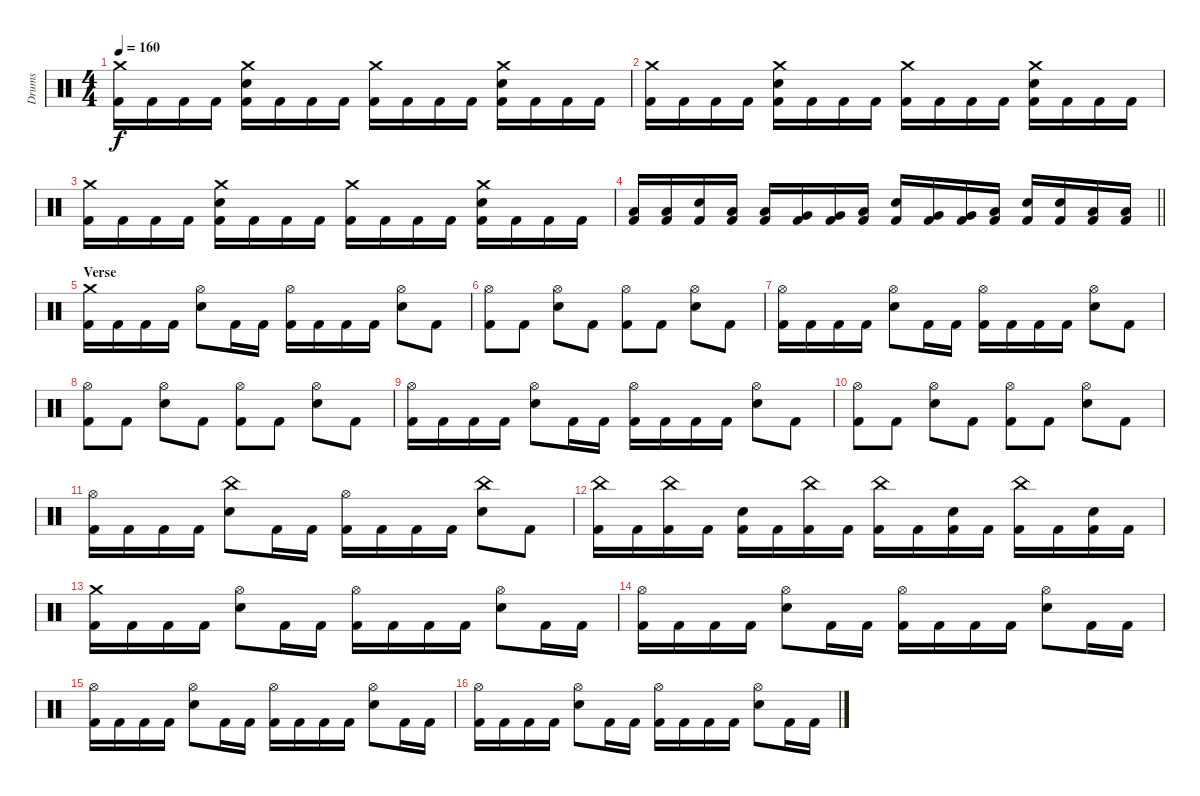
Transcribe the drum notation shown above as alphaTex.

\track ("Drums" "Drums") {instrument percussion}
\staff {score}
\articulation defaults
\ts (4 4)
\tempo 160
\clef neutral
\ks c
("Crash medium (hit)" "Kick (hit) 2").16{dy f} "Kick (hit) 2".16 "Kick (hit) 2".16 "Kick (hit) 2".16 ("Crash medium (hit)" "Snare (hit) 2" "Kick (hit) 2").16 "Kick (hit) 2".16 "Kick (hit) 2".16 "Kick (hit) 2".16 ("Crash medium (hit)" "Kick (hit) 2").16 "Kick (hit) 2".16 "Kick (hit) 2".16 "Kick (hit) 2".16 ("Crash medium (hit)" "Snare (hit) 2" "Kick (hit) 2").16 "Kick (hit) 2".16 "Kick (hit) 2".16 "Kick (hit) 2".16 |
("Crash medium (hit)" "Kick (hit) 2").16 "Kick (hit) 2".16 "Kick (hit) 2".16 "Kick (hit) 2".16 ("Crash medium (hit)" "Snare (hit) 2" "Kick (hit) 2").16 "Kick (hit) 2".16 "Kick (hit) 2".16 "Kick (hit) 2".16 ("Crash medium (hit)" "Kick (hit) 2").16 "Kick (hit) 2".16 "Kick (hit) 2".16 "Kick (hit) 2".16 ("Crash medium (hit)" "Snare (hit) 2" "Kick (hit) 2").16 "Kick (hit) 2".16 "Kick (hit) 2".16 "Kick (hit) 2".16 |
("Crash medium (hit)" "Kick (hit) 2").16 "Kick (hit) 2".16 "Kick (hit) 2".16 "Kick (hit) 2".16 ("Crash medium (hit)" "Snare (hit) 2" "Kick (hit) 2").16 "Kick (hit) 2".16 "Kick (hit) 2".16 "Kick (hit) 2".16 ("Crash medium (hit)" "Kick (hit) 2").16 "Kick (hit) 2".16 "Kick (hit) 2".16 "Kick (hit) 2".16 ("Crash medium (hit)" "Snare (hit) 2" "Kick (hit) 2").16 "Kick (hit) 2".16 "Kick (hit) 2".16 "Kick (hit) 2".16 |
\barLineRight lightlight
("Low Tom (hit)" "Kick (hit) 2").16 ("Low Tom (hit)" "Kick (hit) 2").16 ("Snare (hit) 2" "Kick (hit) 2").16 ("Low Tom (hit)" "Kick (hit) 2").16 ("Low Tom (hit)" "Kick (hit) 2").16 ("Very Low Tom (hit)" "Kick (hit) 2").16 ("Very Low Tom (hit)" "Kick (hit) 2").16 ("Low Floor Tom (hit)" "Kick (hit) 2").16 ("Snare (hit) 2" "Kick (hit) 2").16 ("Very Low Tom (hit)" "Kick (hit) 2").16 ("Very Low Tom (hit)" "Kick (hit) 2").16 ("Low Floor Tom (hit)" "Kick (hit) 2").16 ("Snare (hit) 2" "Kick (hit) 2").16 ("Snare (hit) 2" "Kick (hit) 2").16 ("Low Floor Tom (hit)" "Kick (hit) 2").16 ("Low Floor Tom (hit)" "Kick (hit) 2").16 |
\section ("" "Verse")
("Crash medium (hit)" "Kick (hit) 2").16 "Kick (hit) 2".16 "Kick (hit) 2".16 "Kick (hit) 2".16 ("Hi-Hat (open)" "Snare (hit) 2").8 "Kick (hit) 2".16 "Kick (hit) 2".16 ("Hi-Hat (open)" "Kick (hit) 2").16 "Kick (hit) 2".16 "Kick (hit) 2".16 "Kick (hit) 2".16 ("Hi-Hat (open)" "Snare (hit) 2").8 "Kick (hit) 2".8 |
("Hi-Hat (open)" "Kick (hit) 2").8 "Kick (hit) 2".8 ("Hi-Hat (open)" "Snare (hit) 2").8 "Kick (hit) 2".8 ("Hi-Hat (open)" "Kick (hit) 2").8 "Kick (hit) 2".8 ("Hi-Hat (open)" "Snare (hit) 2").8 "Kick (hit) 2".8 |
("Hi-Hat (open)" "Kick (hit) 2").16 "Kick (hit) 2".16 "Kick (hit) 2".16 "Kick (hit) 2".16 ("Hi-Hat (open)" "Snare (hit) 2").8 "Kick (hit) 2".16 "Kick (hit) 2".16 ("Hi-Hat (open)" "Kick (hit) 2").16 "Kick (hit) 2".16 "Kick (hit) 2".16 "Kick (hit) 2".16 ("Hi-Hat (open)" "Snare (hit) 2").8 "Kick (hit) 2".8 |
("Hi-Hat (open)" "Kick (hit) 2").8 "Kick (hit) 2".8 ("Hi-Hat (open)" "Snare (hit) 2").8 "Kick (hit) 2".8 ("Hi-Hat (open)" "Kick (hit) 2").8 "Kick (hit) 2".8 ("Hi-Hat (open)" "Snare (hit) 2").8 "Kick (hit) 2".8 |
("Hi-Hat (open)" "Kick (hit) 2").16 "Kick (hit) 2".16 "Kick (hit) 2".16 "Kick (hit) 2".16 ("Hi-Hat (open)" "Snare (hit) 2").8 "Kick (hit) 2".16 "Kick (hit) 2".16 ("Hi-Hat (open)" "Kick (hit) 2").16 "Kick (hit) 2".16 "Kick (hit) 2".16 "Kick (hit) 2".16 ("Hi-Hat (open)" "Snare (hit) 2").8 "Kick (hit) 2".8 |
("Hi-Hat (open)" "Kick (hit) 2").8 "Kick (hit) 2".8 ("Hi-Hat (open)" "Snare (hit) 2").8 "Kick (hit) 2".8 ("Hi-Hat (open)" "Kick (hit) 2").8 "Kick (hit) 2".8 ("Hi-Hat (open)" "Snare (hit) 2").8 "Kick (hit) 2".8 |
("Hi-Hat (open)" "Kick (hit) 2").16 "Kick (hit) 2".16 "Kick (hit) 2".16 "Kick (hit) 2".16 ("China (hit)" "Snare (hit) 2").8 "Kick (hit) 2".16 "Kick (hit) 2".16 ("Hi-Hat (open)" "Kick (hit) 2").16 "Kick (hit) 2".16 "Kick (hit) 2".16 "Kick (hit) 2".16 ("China (hit)" "Snare (hit) 2").8 "Kick (hit) 2".8 |
("China (hit)" "Kick (hit) 2").16 "Kick (hit) 2".16 ("China (hit)" "Kick (hit) 2").16 "Kick (hit) 2".16 ("Snare (hit) 2" "Kick (hit) 2").16 "Kick (hit) 2".16 ("China (hit)" "Kick (hit) 2").16 "Kick (hit) 2".16 ("China (hit)" "Kick (hit) 2").16 "Kick (hit) 2".16 ("Snare (hit) 2" "Kick (hit) 2").16 "Kick (hit) 2".16 ("China (hit)" "Kick (hit) 2").16 "Kick (hit) 2".16 ("Snare (hit) 2" "Kick (hit) 2").16 "Kick (hit) 2".16 |
("Crash medium (hit)" "Kick (hit) 2").16 "Kick (hit) 2".16 "Kick (hit) 2".16 "Kick (hit) 2".16 ("Hi-Hat (open)" "Snare (hit) 2").8 "Kick (hit) 2".16 "Kick (hit) 2".16 ("Hi-Hat (open)" "Kick (hit) 2").16 "Kick (hit) 2".16 "Kick (hit) 2".16 "Kick (hit) 2".16 ("Hi-Hat (open)" "Snare (hit) 2").8 "Kick (hit) 2".16 "Kick (hit) 2".16 |
("Hi-Hat (open)" "Kick (hit) 2").16 "Kick (hit) 2".16 "Kick (hit) 2".16 "Kick (hit) 2".16 ("Hi-Hat (open)" "Snare (hit) 2").8 "Kick (hit) 2".16 "Kick (hit) 2".16 ("Hi-Hat (open)" "Kick (hit) 2").16 "Kick (hit) 2".16 "Kick (hit) 2".16 "Kick (hit) 2".16 ("Hi-Hat (open)" "Snare (hit) 2").8 "Kick (hit) 2".16 "Kick (hit) 2".16 |
("Hi-Hat (open)" "Kick (hit) 2").16 "Kick (hit) 2".16 "Kick (hit) 2".16 "Kick (hit) 2".16 ("Hi-Hat (open)" "Snare (hit) 2").8 "Kick (hit) 2".16 "Kick (hit) 2".16 ("Hi-Hat (open)" "Kick (hit) 2").16 "Kick (hit) 2".16 "Kick (hit) 2".16 "Kick (hit) 2".16 ("Hi-Hat (open)" "Snare (hit) 2").8 "Kick (hit) 2".16 "Kick (hit) 2".16 |
("Hi-Hat (open)" "Kick (hit) 2").16 "Kick (hit) 2".16 "Kick (hit) 2".16 "Kick (hit) 2".16 ("Hi-Hat (open)" "Snare (hit) 2").8 "Kick (hit) 2".16 "Kick (hit) 2".16 ("Hi-Hat (open)" "Kick (hit) 2").16 "Kick (hit) 2".16 "Kick (hit) 2".16 "Kick (hit) 2".16 ("Hi-Hat (open)" "Snare (hit) 2").8 "Kick (hit) 2".16 "Kick (hit) 2".16
